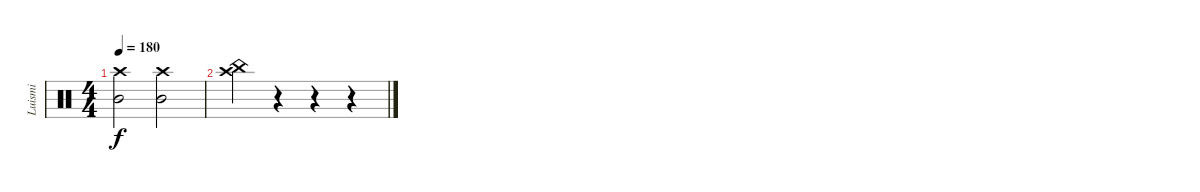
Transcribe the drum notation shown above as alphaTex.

\track ("Luismi" "Luismi") {instrument percussion}
\staff {score}
\articulation defaults
\ts (4 4)
\tempo 180
\clef neutral
\ks c
("Mid Tom (hit)" "Crash high (hit)").2{dy f} ("Crash high (hit)" "Mid Tom (hit)").2 |
("Crash high (hit)" "China (hit)").4 r.4 r.4 r.4
